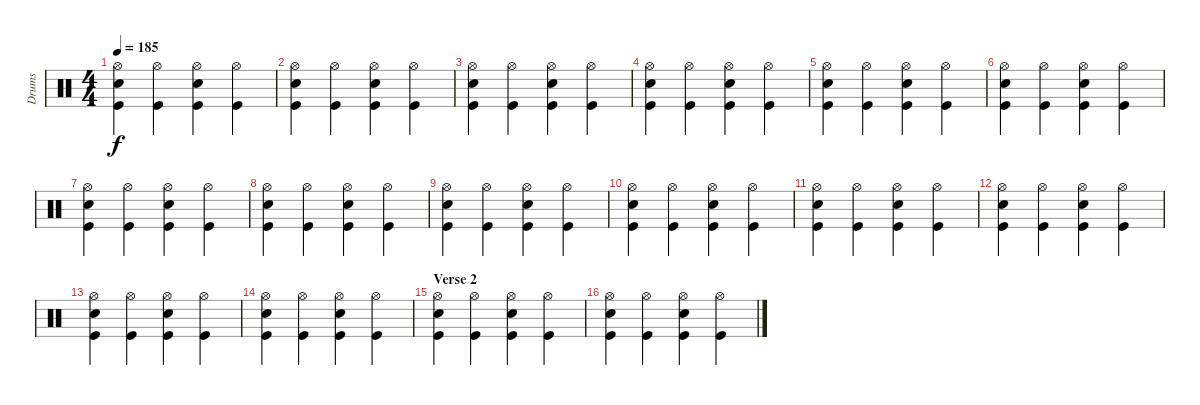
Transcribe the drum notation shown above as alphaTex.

\track ("Drums" "Drums") {instrument percussion}
\staff {score}
\articulation defaults
\ts (4 4)
\tempo 185
\clef neutral
\ks c
("Hi-Hat (open)" "Kick (hit)" "Snare (hit) 2").4{dy f} ("Hi-Hat (open)" "Kick (hit)").4 ("Hi-Hat (open)" "Kick (hit)" "Snare (hit) 2").4 ("Hi-Hat (open)" "Kick (hit)").4 |
("Hi-Hat (open)" "Kick (hit)" "Snare (hit) 2").4 ("Hi-Hat (open)" "Kick (hit)").4 ("Hi-Hat (open)" "Kick (hit)" "Snare (hit) 2").4 ("Hi-Hat (open)" "Kick (hit)").4 |
("Hi-Hat (open)" "Kick (hit)" "Snare (hit) 2").4 ("Hi-Hat (open)" "Kick (hit)").4 ("Hi-Hat (open)" "Kick (hit)" "Snare (hit) 2").4 ("Hi-Hat (open)" "Kick (hit)").4 |
("Hi-Hat (open)" "Kick (hit)" "Snare (hit) 2").4 ("Hi-Hat (open)" "Kick (hit)").4 ("Hi-Hat (open)" "Kick (hit)" "Snare (hit) 2").4 ("Hi-Hat (open)" "Kick (hit)").4 |
("Hi-Hat (open)" "Kick (hit)" "Snare (hit) 2").4 ("Hi-Hat (open)" "Kick (hit)").4 ("Hi-Hat (open)" "Kick (hit)" "Snare (hit) 2").4 ("Hi-Hat (open)" "Kick (hit)").4 |
("Hi-Hat (open)" "Kick (hit)" "Snare (hit) 2").4 ("Hi-Hat (open)" "Kick (hit)").4 ("Hi-Hat (open)" "Kick (hit)" "Snare (hit) 2").4 ("Hi-Hat (open)" "Kick (hit)").4 |
("Hi-Hat (open)" "Kick (hit)" "Snare (hit) 2").4 ("Hi-Hat (open)" "Kick (hit)").4 ("Hi-Hat (open)" "Kick (hit)" "Snare (hit) 2").4 ("Hi-Hat (open)" "Kick (hit)").4 |
("Hi-Hat (open)" "Kick (hit)" "Snare (hit) 2").4 ("Hi-Hat (open)" "Kick (hit)").4 ("Hi-Hat (open)" "Kick (hit)" "Snare (hit) 2").4 ("Hi-Hat (open)" "Kick (hit)").4 |
("Hi-Hat (open)" "Kick (hit)" "Snare (hit) 2").4 ("Hi-Hat (open)" "Kick (hit)").4 ("Hi-Hat (open)" "Kick (hit)" "Snare (hit) 2").4 ("Hi-Hat (open)" "Kick (hit)").4 |
("Hi-Hat (open)" "Kick (hit)" "Snare (hit) 2").4 ("Hi-Hat (open)" "Kick (hit)").4 ("Hi-Hat (open)" "Kick (hit)" "Snare (hit) 2").4 ("Hi-Hat (open)" "Kick (hit)").4 |
("Hi-Hat (open)" "Kick (hit)" "Snare (hit) 2").4 ("Hi-Hat (open)" "Kick (hit)").4 ("Hi-Hat (open)" "Kick (hit)" "Snare (hit) 2").4 ("Hi-Hat (open)" "Kick (hit)").4 |
("Hi-Hat (open)" "Kick (hit)" "Snare (hit) 2").4 ("Hi-Hat (open)" "Kick (hit)").4 ("Hi-Hat (open)" "Kick (hit)" "Snare (hit) 2").4 ("Hi-Hat (open)" "Kick (hit)").4 |
("Hi-Hat (open)" "Kick (hit)" "Snare (hit) 2").4 ("Hi-Hat (open)" "Kick (hit)").4 ("Hi-Hat (open)" "Kick (hit)" "Snare (hit) 2").4 ("Hi-Hat (open)" "Kick (hit)").4 |
("Hi-Hat (open)" "Kick (hit)" "Snare (hit) 2").4 ("Hi-Hat (open)" "Kick (hit)").4 ("Hi-Hat (open)" "Kick (hit)" "Snare (hit) 2").4 ("Hi-Hat (open)" "Kick (hit)").4 |
\section ("" "Verse 2")
("Hi-Hat (open)" "Kick (hit)" "Snare (hit) 2").4 ("Hi-Hat (open)" "Kick (hit)").4 ("Hi-Hat (open)" "Kick (hit)" "Snare (hit) 2").4 ("Hi-Hat (open)" "Kick (hit)").4 |
("Hi-Hat (open)" "Kick (hit)" "Snare (hit) 2").4 ("Hi-Hat (open)" "Kick (hit)").4 ("Hi-Hat (open)" "Kick (hit)" "Snare (hit) 2").4 ("Hi-Hat (open)" "Kick (hit)").4
